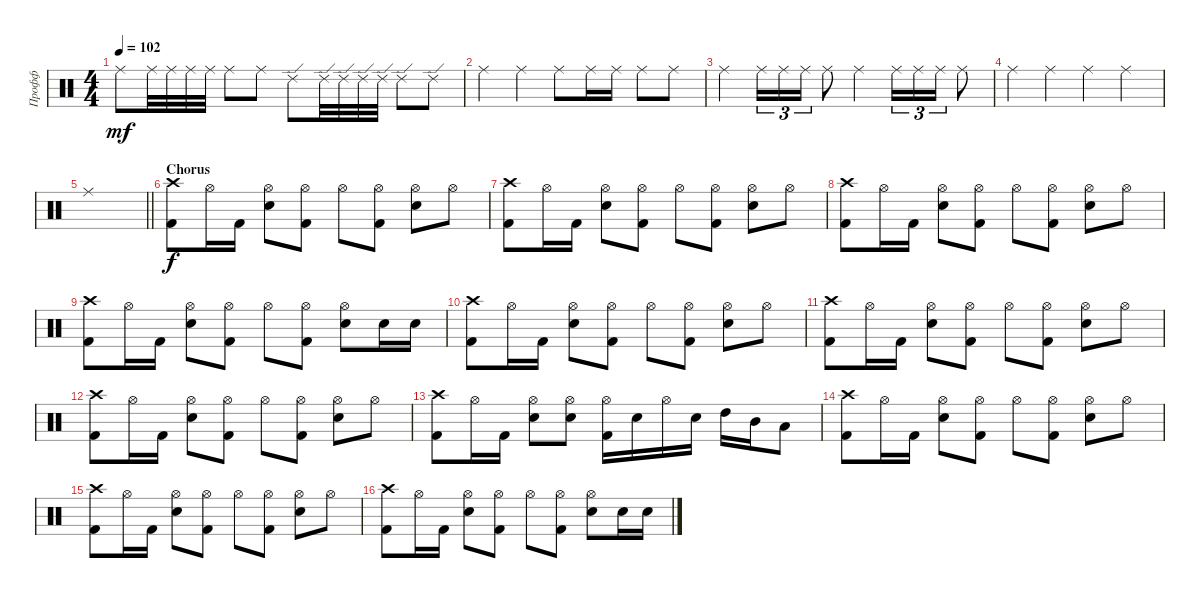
\track ("Профф" "Профф") {instrument percussion}
\staff {score}
\articulation defaults
\ts (4 4)
\tempo 102
\clef neutral
\ks c "Ride (middle)".8{dy mf} "Ride (middle)".32 "Ride (middle)".32 "Ride (middle)".32 "Ride (middle)".32 "Ride (middle)".8 "Ride (middle)".8 "Ride (edge) 2".8 "Ride (edge) 2".32 "Ride (edge) 2".32 "Ride (edge) 2".32 "Ride (edge) 2".32 "Ride (edge) 2".8 "Ride (edge) 2".8
|
"Ride (middle)".4 "Ride (middle)".4 "Ride (middle)".8 "Ride (middle)".16 "Ride (middle)".16 "Ride (middle)".8 "Ride (middle)".8 |
"Ride (middle)".4 "Ride (middle)".16{tu (3 2)} "Ride (middle)".16{tu (3 2)} "Ride (middle)".16{tu (3 2)} "Ride (middle)".8 "Ride (middle)".4 "Ride (middle)".16{tu (3 2)} "Ride (middle)".16{tu (3 2)} "Ride (middle)".16{tu (3 2)} "Ride (middle)".8 |
"Ride (middle)".4 "Ride (middle)".4 "Ride (middle)".4 "Ride (middle)".4 |
\barLineRight lightlight "Ride (middle)".1
|
\section ("" "Chorus")
("Crash high (hit)" "Kick (hit) 2").8{dy f} "Hi-Hat (open)".16 "Kick (hit) 2".16 ("Hi-Hat (open)" "Snare (hit) 2").8 ("Hi-Hat (open)" "Kick (hit) 2").8 "Hi-Hat (open)".8 ("Hi-Hat (open)" "Kick (hit) 2").8 ("Hi-Hat (open)" "Snare (hit) 2").8 "Hi-Hat (open)".8 |
("Crash high (hit)" "Kick (hit) 2").8 "Hi-Hat (open)".16 "Kick (hit) 2".16 ("Hi-Hat (open)" "Snare (hit) 2").8 ("Hi-Hat (open)" "Kick (hit) 2").8 "Hi-Hat (open)".8 ("Hi-Hat (open)" "Kick (hit) 2").8 ("Hi-Hat (open)" "Snare (hit) 2").8 "Hi-Hat (open)".8 |
("Crash high (hit)" "Kick (hit) 2").8 "Hi-Hat (open)".16 "Kick (hit) 2".16 ("Hi-Hat (open)" "Snare (hit) 2").8 ("Hi-Hat (open)" "Kick (hit) 2").8 "Hi-Hat (open)".8 ("Hi-Hat (open)" "Kick (hit) 2").8 ("Hi-Hat (open)" "Snare (hit) 2").8 "Hi-Hat (open)".8 |
("Crash high (hit)" "Kick (hit) 2").8 "Hi-Hat (open)".16 "Kick (hit) 2".16 ("Hi-Hat (open)" "Snare (hit) 2").8 ("Hi-Hat (open)" "Kick (hit) 2").8 "Hi-Hat (open)".8 ("Hi-Hat (open)" "Kick (hit) 2").8 ("Hi-Hat (open)" "Snare (hit) 2").8 "Snare (hit) 2".16 "Snare (hit) 2".16 |
("Crash high (hit)" "Kick (hit) 2").8 "Hi-Hat (open)".16 "Kick (hit) 2".16 ("Hi-Hat (open)" "Snare (hit) 2").8 ("Hi-Hat (open)" "Kick (hit) 2").8 "Hi-Hat (open)".8 ("Hi-Hat (open)" "Kick (hit) 2").8 ("Hi-Hat (open)" "Snare (hit) 2").8 "Hi-Hat (open)".8 |
("Crash high (hit)" "Kick (hit) 2").8 "Hi-Hat (open)".16 "Kick (hit) 2".16 ("Hi-Hat (open)" "Snare (hit) 2").8 ("Hi-Hat (open)" "Kick (hit) 2").8 "Hi-Hat (open)".8 ("Hi-Hat (open)" "Kick (hit) 2").8 ("Hi-Hat (open)" "Snare (hit) 2").8 "Hi-Hat (open)".8 |
("Crash high (hit)" "Kick (hit) 2").8 "Hi-Hat (open)".16 "Kick (hit) 2".16 ("Hi-Hat (open)" "Snare (hit) 2").8 ("Hi-Hat (open)" "Kick (hit) 2").8 "Hi-Hat (open)".8 ("Hi-Hat (open)" "Kick (hit) 2").8 ("Hi-Hat (open)" "Snare (hit) 2").8 "Hi-Hat (open)".8 |
("Crash high (hit)" "Kick (hit) 2").8 "Hi-Hat (open)".16 "Kick (hit) 2".16 ("Hi-Hat (open)" "Snare (hit) 2").8 ("Hi-Hat (open)" "Snare (hit) 2").8 ("Hi-Hat (open)" "Kick (hit) 2").16 "Snare (hit) 2".16 "Hi-Hat (open)".16 "Snare (hit) 2".16 "High Tom (hit)".16 "Mid Tom (hit)".16 "Low Tom (hit)".8 |
("Crash high (hit)" "Kick (hit) 2").8 "Hi-Hat (open)".16 "Kick (hit) 2".16 ("Hi-Hat (open)" "Snare (hit) 2").8 ("Hi-Hat (open)" "Kick (hit) 2").8 "Hi-Hat (open)".8 ("Hi-Hat (open)" "Kick (hit) 2").8 ("Hi-Hat (open)" "Snare (hit) 2").8 "Hi-Hat (open)".8 |
("Crash high (hit)" "Kick (hit) 2").8 "Hi-Hat (open)".16 "Kick (hit) 2".16 ("Hi-Hat (open)" "Snare (hit) 2").8 ("Hi-Hat (open)" "Kick (hit) 2").8 "Hi-Hat (open)".8 ("Hi-Hat (open)" "Kick (hit) 2").8 ("Hi-Hat (open)" "Snare (hit) 2").8 "Hi-Hat (open)".8 |
("Crash high (hit)" "Kick (hit) 2").8 "Hi-Hat (open)".16 "Kick (hit) 2".16 ("Hi-Hat (open)" "Snare (hit) 2").8 ("Hi-Hat (open)" "Kick (hit) 2").8 "Hi-Hat (open)".8 ("Hi-Hat (open)" "Kick (hit) 2").8 ("Hi-Hat (open)" "Snare (hit) 2").8 "Snare (hit) 2".16 "Snare (hit) 2".16
